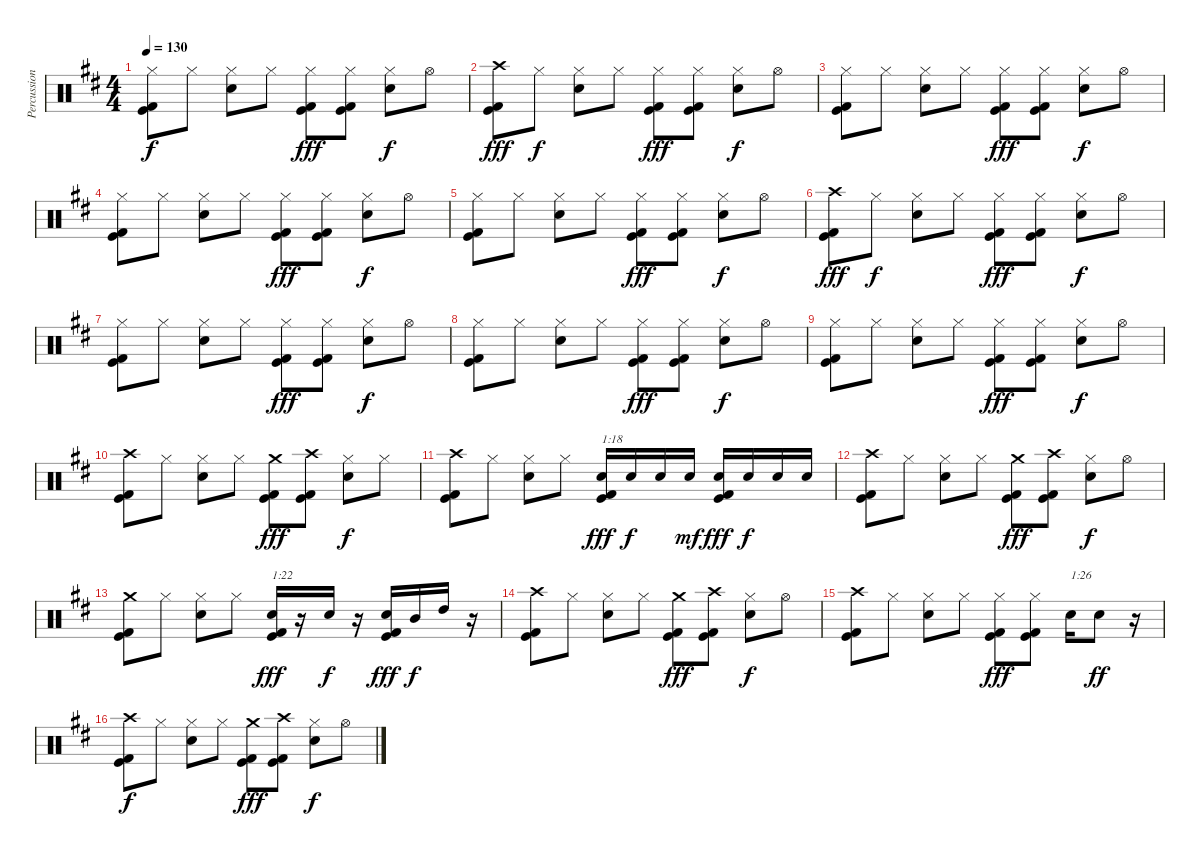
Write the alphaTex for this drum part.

\track ("Percussion" "Percussion") {instrument percussion}
\staff {score}
\articulation defaults
\ts (4 4)
\tempo 130
\clef neutral
\ks d
("Hi-Hat (closed)" "Kick (hit)" "Kick (hit) 2").8{dy f} "Hi-Hat (closed)".8 ("Hi-Hat (closed)" "Electric Snare (hit)").8 "Hi-Hat (closed)".8 ("Hi-Hat (closed)" "Kick (hit)" "Kick (hit) 2").8{dy fff} ("Hi-Hat (closed)" "Kick (hit)" "Kick (hit) 2").8 ("Hi-Hat (closed)" "Electric Snare (hit)").8{dy f} "Hi-Hat (open)".8 |
("Crash high (hit)" "Kick (hit)" "Kick (hit) 2").8{dy fff} "Hi-Hat (closed)".8{dy f} ("Hi-Hat (closed)" "Electric Snare (hit)").8 "Hi-Hat (closed)".8 ("Hi-Hat (closed)" "Kick (hit)" "Kick (hit) 2").8{dy fff} ("Hi-Hat (closed)" "Kick (hit)" "Kick (hit) 2").8 ("Hi-Hat (closed)" "Electric Snare (hit)").8{dy f} "Hi-Hat (open)".8 |
("Hi-Hat (closed)" "Kick (hit)" "Kick (hit) 2").8 "Hi-Hat (closed)".8 ("Hi-Hat (closed)" "Electric Snare (hit)").8 "Hi-Hat (closed)".8 ("Hi-Hat (closed)" "Kick (hit)" "Kick (hit) 2").8{dy fff} ("Hi-Hat (closed)" "Kick (hit)" "Kick (hit) 2").8 ("Hi-Hat (closed)" "Electric Snare (hit)").8{dy f} "Hi-Hat (open)".8 |
("Hi-Hat (closed)" "Kick (hit)" "Kick (hit) 2").8 "Hi-Hat (closed)".8 ("Hi-Hat (closed)" "Electric Snare (hit)").8 "Hi-Hat (closed)".8 ("Hi-Hat (closed)" "Kick (hit)" "Kick (hit) 2").8{dy fff} ("Hi-Hat (closed)" "Kick (hit)" "Kick (hit) 2").8 ("Hi-Hat (closed)" "Electric Snare (hit)").8{dy f} "Hi-Hat (open)".8 |
("Hi-Hat (closed)" "Kick (hit)" "Kick (hit) 2").8 "Hi-Hat (closed)".8 ("Hi-Hat (closed)" "Electric Snare (hit)").8 "Hi-Hat (closed)".8 ("Hi-Hat (closed)" "Kick (hit)" "Kick (hit) 2").8{dy fff} ("Hi-Hat (closed)" "Kick (hit)" "Kick (hit) 2").8 ("Hi-Hat (closed)" "Electric Snare (hit)").8{dy f} "Hi-Hat (open)".8 |
("Crash high (hit)" "Kick (hit)" "Kick (hit) 2").8{dy fff} "Hi-Hat (closed)".8{dy f} ("Hi-Hat (closed)" "Electric Snare (hit)").8 "Hi-Hat (closed)".8 ("Hi-Hat (closed)" "Kick (hit)" "Kick (hit) 2").8{dy fff} ("Hi-Hat (closed)" "Kick (hit)" "Kick (hit) 2").8 ("Hi-Hat (closed)" "Electric Snare (hit)").8{dy f} "Hi-Hat (open)".8 |
("Hi-Hat (closed)" "Kick (hit)" "Kick (hit) 2").8 "Hi-Hat (closed)".8 ("Hi-Hat (closed)" "Electric Snare (hit)").8 "Hi-Hat (closed)".8 ("Hi-Hat (closed)" "Kick (hit)" "Kick (hit) 2").8{dy fff} ("Hi-Hat (closed)" "Kick (hit)" "Kick (hit) 2").8 ("Hi-Hat (closed)" "Electric Snare (hit)").8{dy f} "Hi-Hat (open)".8 |
("Hi-Hat (closed)" "Kick (hit)" "Kick (hit) 2").8 "Hi-Hat (closed)".8 ("Hi-Hat (closed)" "Electric Snare (hit)").8 "Hi-Hat (closed)".8 ("Hi-Hat (closed)" "Kick (hit)" "Kick (hit) 2").8{dy fff} ("Hi-Hat (closed)" "Kick (hit)" "Kick (hit) 2").8 ("Hi-Hat (closed)" "Electric Snare (hit)").8{dy f} "Hi-Hat (open)".8 |
("Hi-Hat (closed)" "Kick (hit)" "Kick (hit) 2").8 "Hi-Hat (closed)".8 ("Hi-Hat (closed)" "Electric Snare (hit)").8 "Hi-Hat (closed)".8 ("Hi-Hat (closed)" "Kick (hit)" "Kick (hit) 2").8{dy fff} ("Hi-Hat (closed)" "Kick (hit)" "Kick (hit) 2").8 ("Hi-Hat (closed)" "Electric Snare (hit)").8{dy f} "Hi-Hat (open)".8 |
("Crash high (hit)" "Kick (hit)" "Kick (hit) 2").8 "Hi-Hat (closed)".8 ("Hi-Hat (closed)" "Electric Snare (hit)").8 "Hi-Hat (closed)".8 ("Crash medium (hit)" "Kick (hit)" "Kick (hit) 2").8{dy fff} ("Crash high (hit)" "Kick (hit)" "Kick (hit) 2").8 ("Hi-Hat (closed)" "Electric Snare (hit)").8{dy f} "Hi-Hat (closed)".8 |
("Crash high (hit)" "Kick (hit)" "Kick (hit) 2").8 "Hi-Hat (closed)".8 ("Hi-Hat (closed)" "Electric Snare (hit)").8 "Hi-Hat (closed)".8 ("Electric Snare (hit)" "Kick (hit)" "Kick (hit) 2").16{txt "1:18" dy fff} "Electric Snare (hit)".16{dy f} "Electric Snare (hit)".16 "Electric Snare (hit)".16{dy mf} ("Electric Snare (hit)" "Kick (hit)" "Kick (hit) 2").16{dy fff} "Electric Snare (hit)".16{dy f} "Electric Snare (hit)".16 "Electric Snare (hit)".16 |
("Crash high (hit)" "Kick (hit)" "Kick (hit) 2").8 "Hi-Hat (closed)".8 ("Hi-Hat (closed)" "Electric Snare (hit)").8 "Hi-Hat (closed)".8 ("Crash medium (hit)" "Kick (hit)" "Kick (hit) 2").8{dy fff} ("Crash high (hit)" "Kick (hit)" "Kick (hit) 2").8 ("Hi-Hat (closed)" "Electric Snare (hit)").8{dy f} "Hi-Hat (open)".8 |
("Crash medium (hit)" "Kick (hit)" "Kick (hit) 2").8 "Hi-Hat (closed)".8 ("Hi-Hat (closed)" "Electric Snare (hit)").8 "Hi-Hat (closed)".8 ("Electric Snare (hit)" "Kick (hit)" "Kick (hit) 2").16{txt "1:22" dy fff} r.16 "Electric Snare (hit)".16{dy f} r.16 ("Electric Snare (hit)" "Kick (hit)" "Kick (hit) 2").16{dy fff} "Mid Tom (hit)".16{dy f} "High Tom (hit)".16 r.16 |
("Crash high (hit)" "Kick (hit)" "Kick (hit) 2").8 "Hi-Hat (closed)".8 ("Hi-Hat (closed)" "Electric Snare (hit)").8 "Hi-Hat (closed)".8 ("Crash medium (hit)" "Kick (hit)" "Kick (hit) 2").8{dy fff} ("Crash high (hit)" "Kick (hit)" "Kick (hit) 2").8 ("Hi-Hat (closed)" "Electric Snare (hit)").8{dy f} "Hi-Hat (open)".8 |
("Crash high (hit)" "Kick (hit)" "Kick (hit) 2").8 "Hi-Hat (closed)".8 ("Hi-Hat (closed)" "Electric Snare (hit)").8 "Hi-Hat (closed)".8 ("Hi-Hat (closed)" "Kick (hit)" "Kick (hit) 2").8{dy fff} ("Hi-Hat (closed)" "Kick (hit)" "Kick (hit) 2").8 "Electric Snare (hit)".16{txt "1:26"} "Electric Snare (hit)".8{dy ff} r.16 |
("Crash high (hit)" "Kick (hit)" "Kick (hit) 2").8{dy f} "Hi-Hat (closed)".8 ("Hi-Hat (closed)" "Electric Snare (hit)").8 "Hi-Hat (closed)".8 ("Crash medium (hit)" "Kick (hit)" "Kick (hit) 2").8{dy fff} ("Crash high (hit)" "Kick (hit)" "Kick (hit) 2").8 ("Hi-Hat (closed)" "Electric Snare (hit)").8{dy f} "Hi-Hat (open)".8
